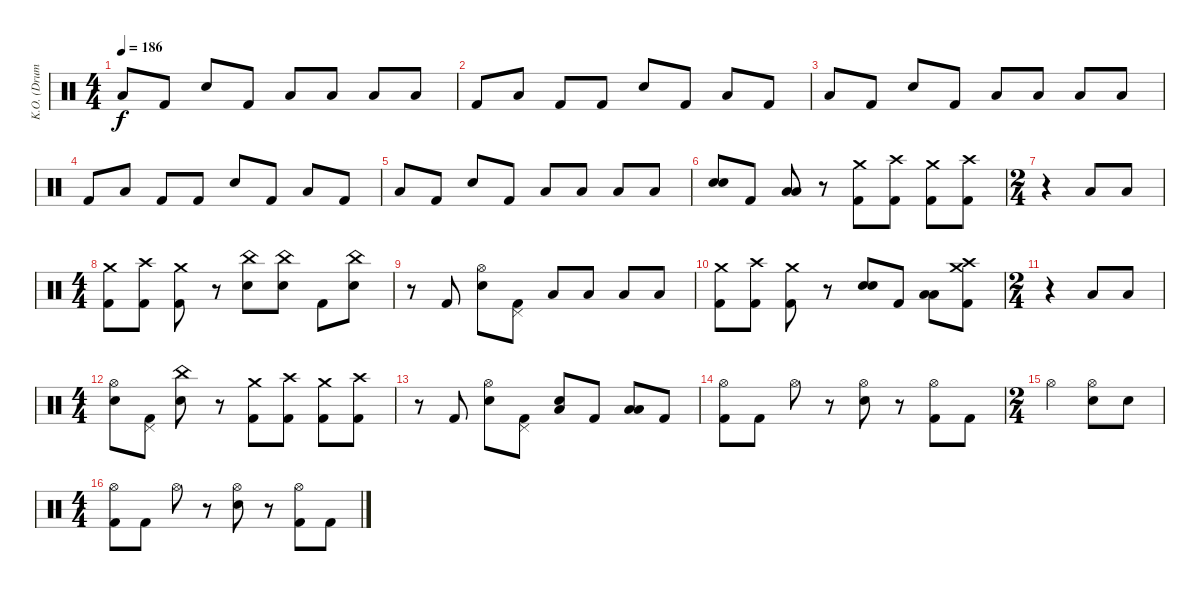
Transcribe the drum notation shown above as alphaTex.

\track ("K.O. (Drums)" "K.O. (Drum") {instrument percussion}
\staff {score}
\articulation defaults
\ts (4 4)
\tempo 186
\clef neutral
\ks c "Low Floor Tom (hit)".8{dy f} "Kick (hit) 2".8 "Electric Snare (hit)".8 "Kick (hit) 2".8 "Low Tom (hit)".8 "Low Tom (hit)".8 "Low Floor Tom (hit)".8 "Low Floor Tom (hit)".8
|
"Kick (hit) 2".8 "Low Floor Tom (hit)".8 "Kick (hit) 2".8 "Kick (hit) 2".8 "Electric Snare (hit)".8 "Kick (hit) 2".8 "Low Tom (hit)".8 "Kick (hit) 2".8 |
"Low Floor Tom (hit)".8 "Kick (hit) 2".8 "Electric Snare (hit)".8 "Kick (hit) 2".8 "Low Tom (hit)".8 "Low Tom (hit)".8 "Low Floor Tom (hit)".8 "Low Floor Tom (hit)".8 |
"Kick (hit) 2".8 "Low Floor Tom (hit)".8 "Kick (hit) 2".8 "Kick (hit) 2".8 "Electric Snare (hit)".8 "Kick (hit) 2".8 "Low Tom (hit)".8 "Kick (hit) 2".8 |
"Low Floor Tom (hit)".8 "Kick (hit) 2".8 "Electric Snare (hit)".8 "Kick (hit) 2".8 "Low Tom (hit)".8 "Low Tom (hit)".8 "Low Floor Tom (hit)".8 "Low Floor Tom (hit)".8 |
("Electric Snare (hit)" "Electric Snare (hit)").8{bu 240} "Kick (hit) 2".8 ("Low Tom (hit)" "Low Floor Tom (hit)").8 r.8 ("Crash medium (hit)" "Kick (hit) 2").8 ("Crash high (hit)" "Kick (hit) 2").8 ("Crash medium (hit)" "Kick (hit) 2").8 ("Crash high (hit)" "Kick (hit) 2").8 |
\ts (2 4)
r.4 "Low Floor Tom (hit)".8 "Low Tom (hit)".8 |
\ts (4 4)
("Crash medium (hit)" "Kick (hit) 2").8 ("Crash high (hit)" "Kick (hit) 2").8 ("Crash medium (hit)" "Kick (hit) 2").8 r.8 ("China (hit)" "Electric Snare (hit)").8 ("China (hit)" "Electric Snare (hit)").8 "Kick (hit) 2".8 ("China (hit)" "Electric Snare (hit)").8 |
r.8 "Kick (hit) 2".8 ("Hi-Hat (open)" "Electric Snare (hit)").8 ("Pedal Hi-Hat (hit)" "Kick (hit) 2").8 "Low Tom (hit)".8 "Low Tom (hit)".8 "Low Floor Tom (hit)".8 "Low Floor Tom (hit)".8 |
("Crash medium (hit)" "Kick (hit) 2").8 ("Crash high (hit)" "Kick (hit) 2").8 ("Crash medium (hit)" "Kick (hit) 2").8 r.8 ("Electric Snare (hit)" "Electric Snare (hit)").8{bu 240} "Kick (hit) 2".8 ("Low Floor Tom (hit)" "Low Tom (hit)").8 ("Crash high (hit)" "Crash medium (hit)" "Kick (hit) 2").8 |
\ts (2 4)
r.4 "Low Floor Tom (hit)".8 "Low Tom (hit)".8 |
\ts (4 4)
("Hi-Hat (open)" "Electric Snare (hit)").8 ("Pedal Hi-Hat (hit)" "Kick (hit) 2").8 ("China (hit)" "Electric Snare (hit)").8 r.8 ("Crash medium (hit)" "Kick (hit) 2").8 ("Crash high (hit)" "Kick (hit) 2").8 ("Crash medium (hit)" "Kick (hit) 2").8 ("Crash high (hit)" "Kick (hit) 2").8 |
r.8 "Kick (hit) 2".8 ("Hi-Hat (open)" "Electric Snare (hit)").8 ("Pedal Hi-Hat (hit)" "Kick (hit) 2").8 ("Low Floor Tom (hit)" "Electric Snare (hit)").8 "Kick (hit) 2".8 ("Low Floor Tom (hit)" "Low Tom (hit)").8 "Kick (hit) 2".8 |
("Hi-Hat (open)" "Kick (hit) 2").8 "Kick (hit) 2".8 "Hi-Hat (open)".8 r.8 ("Hi-Hat (open)" "Electric Snare (hit)").8 r.8 ("Hi-Hat (open)" "Kick (hit) 2").8 "Kick (hit) 2".8 |
\ts (2 4)
"Hi-Hat (open)".4 ("Hi-Hat (open)" "Electric Snare (hit)").8 "Electric Snare (hit)".8 |
\ts (4 4)
("Hi-Hat (open)" "Kick (hit) 2").8 "Kick (hit) 2".8 "Hi-Hat (open)".8 r.8 ("Hi-Hat (open)" "Electric Snare (hit)").8 r.8 ("Hi-Hat (open)" "Kick (hit) 2").8 "Kick (hit) 2".8
